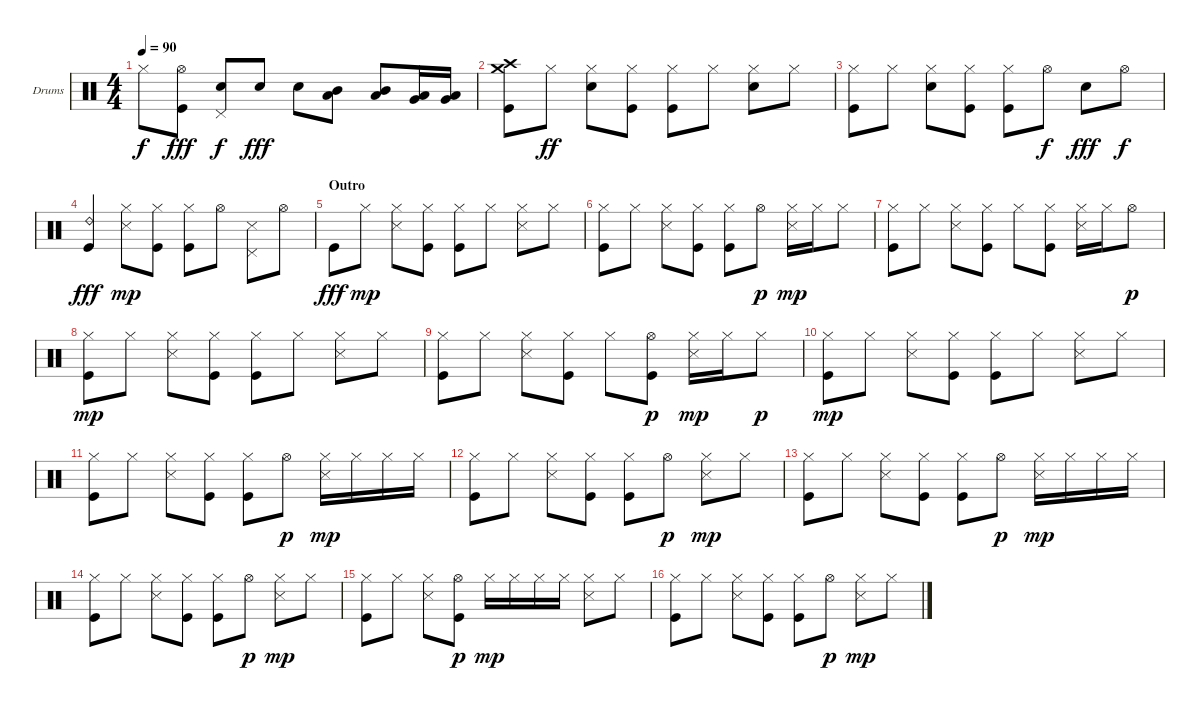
\bracketExtendMode groupsimilarinstruments
\firstSystemTrackNameOrientation horizontal
\otherSystemsTrackNameOrientation horizontal
\track ("Drumkit" "Drums") {instrument percussion}
\staff {score}
\articulation defaults
\ts (4 4)
\tempo 90
\clef neutral
\ks c "Hi-Hat (closed)".8{dy f}
("Hi-Hat (open)" "Kick (hit)").8{dy fff} ("Pedal Hi-Hat (hit)" "Snare (hit) 2").8{dy f} "Snare (hit) 2".8{dy fff} "Snare (hit) 2".8 ("Mid Tom (hit)" "Low Tom (hit)").8 ("Mid Tom (hit)" "Low Tom (hit)").8 ("Low Tom (hit)" "Very Low Tom (hit)").16 ("Low Tom (hit)" "Very Low Tom (hit)").16 |
("Crash high (hit)" "Crash medium (hit)" "Kick (hit)").8 "Hi-Hat (closed)".8{dy ff} ("Hi-Hat (closed)" "Snare (hit) 2").8 ("Hi-Hat (closed)" "Kick (hit)").8 ("Hi-Hat (closed)" "Kick (hit)").8 "Hi-Hat (closed)".8 ("Hi-Hat (closed)" "Snare (hit) 2").8 "Hi-Hat (closed)".8 |
("Hi-Hat (closed)" "Kick (hit)").8 "Hi-Hat (closed)".8 ("Hi-Hat (closed)" "Snare (hit) 2").8 ("Hi-Hat (closed)" "Kick (hit)").8 ("Hi-Hat (closed)" "Kick (hit)").8 "Hi-Hat (open)".8{dy f} "Snare (hit) 2".8{dy fff} "Hi-Hat (open)".8{dy f} |
("Ride (bell) 2" "Kick (hit)").4{dy fff} ("Hi-Hat (closed)" "Snare (side stick) 3").8{dy mp} ("Hi-Hat (closed)" "Kick (hit)").8 ("Hi-Hat (closed)" "Kick (hit)").8 "Hi-Hat (open)".8 ("Pedal Hi-Hat (hit)" "Snare (side stick) 3").8 "Hi-Hat (open)".8 |
\section ("" "Outro")
"Kick (hit)".8{dy fff} "Hi-Hat (closed)".8{dy mp} ("Hi-Hat (closed)" "Snare (side stick) 3").8 ("Hi-Hat (closed)" "Kick (hit)").8 ("Hi-Hat (closed)" "Kick (hit)").8 "Hi-Hat (closed)".8 ("Hi-Hat (closed)" "Snare (side stick) 3").8 "Hi-Hat (closed)".8 |
("Hi-Hat (closed)" "Kick (hit)").8 "Hi-Hat (closed)".8 ("Hi-Hat (closed)" "Snare (side stick) 3").8 ("Hi-Hat (closed)" "Kick (hit)").8 ("Hi-Hat (closed)" "Kick (hit)").8 "Hi-Hat (open)".8{dy p} ("Hi-Hat (closed)" "Snare (side stick) 3").16{dy mp} "Hi-Hat (closed)".16 "Hi-Hat (closed)".8 |
("Hi-Hat (closed)" "Kick (hit)").8 "Hi-Hat (closed)".8 ("Hi-Hat (closed)" "Snare (side stick) 3").8 ("Hi-Hat (closed)" "Kick (hit)").8 "Hi-Hat (closed)".8 ("Hi-Hat (closed)" "Kick (hit)").8 ("Hi-Hat (closed)" "Snare (side stick) 3").16 "Hi-Hat (closed)".16 "Hi-Hat (open)".8{dy p} |
("Hi-Hat (closed)" "Kick (hit)").8{dy mp} "Hi-Hat (closed)".8 ("Hi-Hat (closed)" "Snare (side stick) 3").8 ("Hi-Hat (closed)" "Kick (hit)").8 ("Hi-Hat (closed)" "Kick (hit)").8 "Hi-Hat (closed)".8 ("Hi-Hat (closed)" "Snare (side stick) 3").8 "Hi-Hat (closed)".8 |
("Hi-Hat (closed)" "Kick (hit)").8 "Hi-Hat (closed)".8 ("Hi-Hat (closed)" "Snare (side stick) 3").8 ("Hi-Hat (closed)" "Kick (hit)").8 "Hi-Hat (closed)".8 ("Hi-Hat (open)" "Kick (hit)").8{dy p} ("Hi-Hat (closed)" "Snare (side stick) 3").16{dy mp} "Hi-Hat (closed)".16 "Hi-Hat (closed)".8{dy p} |
("Hi-Hat (closed)" "Kick (hit)").8{dy mp} "Hi-Hat (closed)".8 ("Hi-Hat (closed)" "Snare (side stick) 3").8 ("Hi-Hat (closed)" "Kick (hit)").8 ("Hi-Hat (closed)" "Kick (hit)").8 "Hi-Hat (closed)".8 ("Hi-Hat (closed)" "Snare (side stick) 3").8 "Hi-Hat (closed)".8 |
("Hi-Hat (closed)" "Kick (hit)").8 "Hi-Hat (closed)".8 ("Hi-Hat (closed)" "Snare (side stick) 3").8 ("Hi-Hat (closed)" "Kick (hit)").8 ("Hi-Hat (closed)" "Kick (hit)").8 "Hi-Hat (open)".8{dy p} ("Hi-Hat (closed)" "Snare (side stick) 3").16{dy mp} "Hi-Hat (closed)".16 "Hi-Hat (closed)".16 "Hi-Hat (closed)".16 |
("Hi-Hat (closed)" "Kick (hit)").8 "Hi-Hat (closed)".8 ("Hi-Hat (closed)" "Snare (side stick) 3").8 ("Hi-Hat (closed)" "Kick (hit)").8 ("Hi-Hat (closed)" "Kick (hit)").8 "Hi-Hat (open)".8{dy p} ("Hi-Hat (closed)" "Snare (side stick) 3").8{dy mp} "Hi-Hat (closed)".8 |
("Hi-Hat (closed)" "Kick (hit)").8 "Hi-Hat (closed)".8 ("Hi-Hat (closed)" "Snare (side stick) 3").8 ("Hi-Hat (closed)" "Kick (hit)").8 ("Hi-Hat (closed)" "Kick (hit)").8 "Hi-Hat (open)".8{dy p} ("Hi-Hat (closed)" "Snare (side stick) 3").16{dy mp} "Hi-Hat (closed)".16 "Hi-Hat (closed)".16 "Hi-Hat (closed)".16 |
("Hi-Hat (closed)" "Kick (hit)").8 "Hi-Hat (closed)".8 ("Hi-Hat (closed)" "Snare (side stick) 3").8 ("Hi-Hat (closed)" "Kick (hit)").8 ("Hi-Hat (closed)" "Kick (hit)").8 "Hi-Hat (open)".8{dy p} ("Hi-Hat (closed)" "Snare (side stick) 3").8{dy mp} "Hi-Hat (closed)".8 |
("Hi-Hat (closed)" "Kick (hit)").8 "Hi-Hat (closed)".8 ("Hi-Hat (closed)" "Snare (side stick) 3").8 ("Hi-Hat (open)" "Kick (hit)").8{dy p} "Hi-Hat (closed)".16{dy mp} "Hi-Hat (closed)".16 "Hi-Hat (closed)".16 "Hi-Hat (closed)".16 ("Hi-Hat (closed)" "Snare (side stick) 3").8 "Hi-Hat (closed)".8 |
("Hi-Hat (closed)" "Kick (hit)").8 "Hi-Hat (closed)".8 ("Hi-Hat (closed)" "Snare (side stick) 3").8 ("Hi-Hat (closed)" "Kick (hit)").8 ("Hi-Hat (closed)" "Kick (hit)").8 "Hi-Hat (open)".8{dy p} ("Hi-Hat (closed)" "Snare (side stick) 3").8{dy mp} "Hi-Hat (closed)".8
